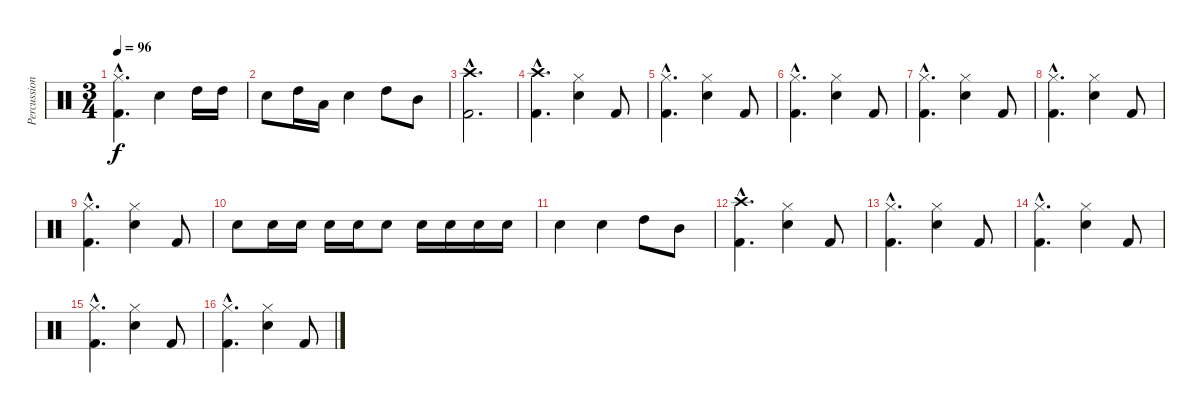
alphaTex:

\track ("Percussions" "Percussion") {instrument percussion}
\staff {score}
\articulation defaults
\ts (3 4)
\tempo 96
\clef neutral
\ks c
("Hi-Hat (closed)"{hac} "Kick (hit) 2"{hac}).4{d dy f} "Snare (hit) 2".4 "High Tom (hit)".16 "High Tom (hit)".16 |
"Snare (hit) 2".8 "High Tom (hit)".16 "Low Tom (hit)".16 "Snare (hit) 2".4 "High Tom (hit)".8 "Mid Tom (hit)".8 |
("Crash high (hit)"{hac} "Kick (hit) 2"{hac}).2{d} |
("Crash high (hit)"{hac} "Kick (hit) 2"{hac}).4{d} ("Hi-Hat (closed)" "Snare (hit) 2").4 "Kick (hit) 2".8 |
("Hi-Hat (closed)"{hac} "Kick (hit) 2"{hac}).4{d} ("Hi-Hat (closed)" "Snare (hit) 2").4 "Kick (hit) 2".8 |
("Hi-Hat (closed)"{hac} "Kick (hit) 2"{hac}).4{d} ("Hi-Hat (closed)" "Snare (hit) 2").4 "Kick (hit) 2".8 |
("Hi-Hat (closed)"{hac} "Kick (hit) 2"{hac}).4{d} ("Hi-Hat (closed)" "Snare (hit) 2").4 "Kick (hit) 2".8 |
("Hi-Hat (closed)"{hac} "Kick (hit) 2"{hac}).4{d} ("Hi-Hat (closed)" "Snare (hit) 2").4 "Kick (hit) 2".8 |
("Hi-Hat (closed)"{hac} "Kick (hit) 2"{hac}).4{d} ("Hi-Hat (closed)" "Snare (hit) 2").4 "Kick (hit) 2".8 |
"Snare (hit) 2".8 "Snare (hit) 2".16 "Snare (hit) 2".16 "Snare (hit) 2".16 "Snare (hit) 2".16 "Snare (hit) 2".8 "Snare (hit) 2".16 "Snare (hit) 2".16 "Snare (hit) 2".16 "Snare (hit) 2".16 |
"Snare (hit) 2".4 "Snare (hit) 2".4 "High Tom (hit)".8 "Mid Tom (hit)".8 |
("Crash high (hit)"{hac} "Kick (hit) 2"{hac}).4{d} ("Hi-Hat (closed)" "Snare (hit) 2").4 "Kick (hit) 2".8 |
("Hi-Hat (closed)"{hac} "Kick (hit) 2"{hac}).4{d} ("Hi-Hat (closed)" "Snare (hit) 2").4 "Kick (hit) 2".8 |
("Hi-Hat (closed)"{hac} "Kick (hit) 2"{hac}).4{d} ("Hi-Hat (closed)" "Snare (hit) 2").4 "Kick (hit) 2".8 |
("Hi-Hat (closed)"{hac} "Kick (hit) 2"{hac}).4{d} ("Hi-Hat (closed)" "Snare (hit) 2").4 "Kick (hit) 2".8 |
("Hi-Hat (closed)"{hac} "Kick (hit) 2"{hac}).4{d} ("Hi-Hat (closed)" "Snare (hit) 2").4 "Kick (hit) 2".8
